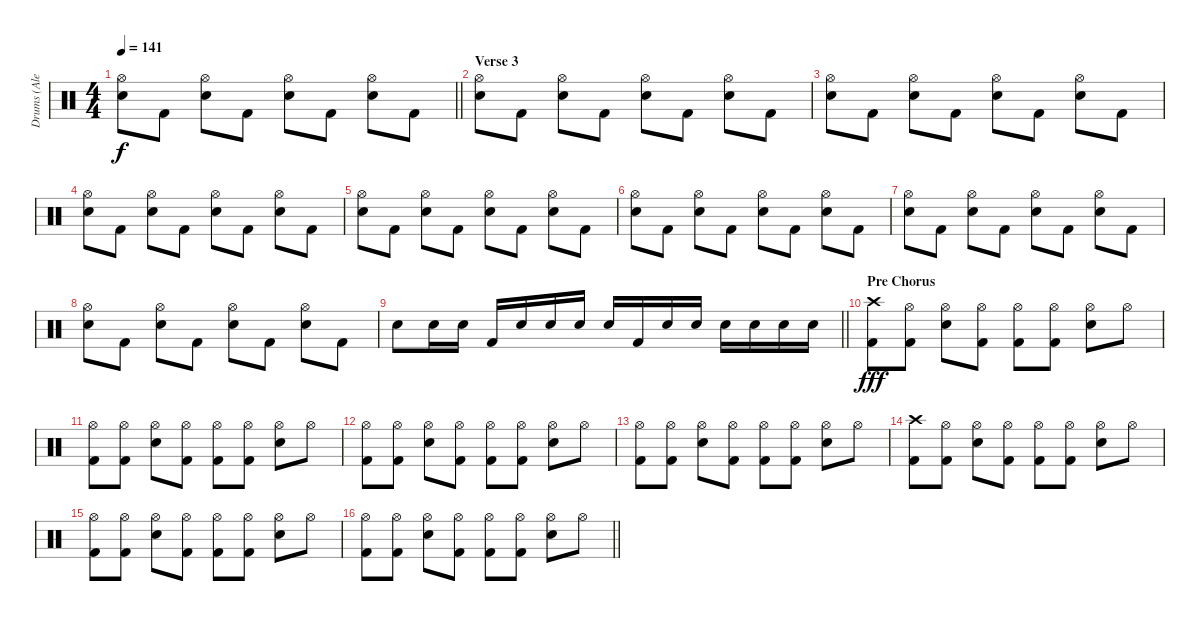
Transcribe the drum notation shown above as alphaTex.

\track ("Drums (Alex Van Halen)" "Drums (Ale") {instrument percussion}
\staff {score}
\articulation defaults
\ts (4 4)
\tempo 141
\clef neutral
\barLineRight lightlight
\ks c
("Hi-Hat (open)" "Electric Snare (hit)").8{dy f} "Kick (hit) 2".8 ("Hi-Hat (open)" "Electric Snare (hit)").8 "Kick (hit) 2".8 ("Hi-Hat (open)" "Electric Snare (hit)").8 "Kick (hit) 2".8 ("Hi-Hat (open)" "Electric Snare (hit)").8 "Kick (hit) 2".8 |
\section ("" "Verse 3")
("Hi-Hat (open)" "Electric Snare (hit)").8 "Kick (hit) 2".8 ("Hi-Hat (open)" "Electric Snare (hit)").8 "Kick (hit) 2".8 ("Hi-Hat (open)" "Electric Snare (hit)").8 "Kick (hit) 2".8 ("Hi-Hat (open)" "Electric Snare (hit)").8 "Kick (hit) 2".8 |
("Hi-Hat (open)" "Electric Snare (hit)").8 "Kick (hit) 2".8 ("Hi-Hat (open)" "Electric Snare (hit)").8 "Kick (hit) 2".8 ("Hi-Hat (open)" "Electric Snare (hit)").8 "Kick (hit) 2".8 ("Hi-Hat (open)" "Electric Snare (hit)").8 "Kick (hit) 2".8 |
("Hi-Hat (open)" "Electric Snare (hit)").8 "Kick (hit) 2".8 ("Hi-Hat (open)" "Electric Snare (hit)").8 "Kick (hit) 2".8 ("Hi-Hat (open)" "Electric Snare (hit)").8 "Kick (hit) 2".8 ("Hi-Hat (open)" "Electric Snare (hit)").8 "Kick (hit) 2".8 |
("Hi-Hat (open)" "Electric Snare (hit)").8 "Kick (hit) 2".8 ("Hi-Hat (open)" "Electric Snare (hit)").8 "Kick (hit) 2".8 ("Hi-Hat (open)" "Electric Snare (hit)").8 "Kick (hit) 2".8 ("Hi-Hat (open)" "Electric Snare (hit)").8 "Kick (hit) 2".8 |
("Hi-Hat (open)" "Electric Snare (hit)").8 "Kick (hit) 2".8 ("Hi-Hat (open)" "Electric Snare (hit)").8 "Kick (hit) 2".8 ("Hi-Hat (open)" "Electric Snare (hit)").8 "Kick (hit) 2".8 ("Hi-Hat (open)" "Electric Snare (hit)").8 "Kick (hit) 2".8 |
("Hi-Hat (open)" "Electric Snare (hit)").8 "Kick (hit) 2".8 ("Hi-Hat (open)" "Electric Snare (hit)").8 "Kick (hit) 2".8 ("Hi-Hat (open)" "Electric Snare (hit)").8 "Kick (hit) 2".8 ("Hi-Hat (open)" "Electric Snare (hit)").8 "Kick (hit) 2".8 |
("Hi-Hat (open)" "Electric Snare (hit)").8 "Kick (hit) 2".8 ("Hi-Hat (open)" "Electric Snare (hit)").8 "Kick (hit) 2".8 ("Hi-Hat (open)" "Electric Snare (hit)").8 "Kick (hit) 2".8 ("Hi-Hat (open)" "Electric Snare (hit)").8 "Kick (hit) 2".8 |
\barLineRight lightlight "Electric Snare (hit)".8 "Electric Snare (hit)".16 "Electric Snare (hit)".16 "Kick (hit) 2".16 "Electric Snare (hit)".16 "Electric Snare (hit)".16 "Electric Snare (hit)".16 "Electric Snare (hit)".16 "Kick (hit) 2".16 "Electric Snare (hit)".16 "Electric Snare (hit)".16 "Electric Snare (hit)".16 "Electric Snare (hit)".16 "Electric Snare (hit)".16 "Electric Snare (hit)".16
|
\section ("" "Pre Chorus")
("Crash high (hit)" "Kick (hit) 2").8{dy fff} ("Hi-Hat (open)" "Kick (hit) 2").8 ("Hi-Hat (open)" "Electric Snare (hit)").8 ("Hi-Hat (open)" "Kick (hit) 2").8 ("Hi-Hat (open)" "Kick (hit) 2").8 ("Hi-Hat (open)" "Kick (hit) 2").8 ("Hi-Hat (open)" "Electric Snare (hit)").8 "Hi-Hat (open)".8 |
("Hi-Hat (open)" "Kick (hit) 2").8 ("Hi-Hat (open)" "Kick (hit) 2").8 ("Hi-Hat (open)" "Electric Snare (hit)").8 ("Hi-Hat (open)" "Kick (hit) 2").8 ("Hi-Hat (open)" "Kick (hit) 2").8 ("Hi-Hat (open)" "Kick (hit) 2").8 ("Hi-Hat (open)" "Electric Snare (hit)").8 "Hi-Hat (open)".8 |
("Hi-Hat (open)" "Kick (hit) 2").8 ("Hi-Hat (open)" "Kick (hit) 2").8 ("Hi-Hat (open)" "Electric Snare (hit)").8 ("Hi-Hat (open)" "Kick (hit) 2").8 ("Hi-Hat (open)" "Kick (hit) 2").8 ("Hi-Hat (open)" "Kick (hit) 2").8 ("Hi-Hat (open)" "Electric Snare (hit)").8 "Hi-Hat (open)".8 |
("Hi-Hat (open)" "Kick (hit) 2").8 ("Hi-Hat (open)" "Kick (hit) 2").8 ("Hi-Hat (open)" "Electric Snare (hit)").8 ("Hi-Hat (open)" "Kick (hit) 2").8 ("Hi-Hat (open)" "Kick (hit) 2").8 ("Hi-Hat (open)" "Kick (hit) 2").8 ("Hi-Hat (open)" "Electric Snare (hit)").8 "Hi-Hat (open)".8 |
("Crash high (hit)" "Kick (hit) 2").8 ("Hi-Hat (open)" "Kick (hit) 2").8 ("Hi-Hat (open)" "Electric Snare (hit)").8 ("Hi-Hat (open)" "Kick (hit) 2").8 ("Hi-Hat (open)" "Kick (hit) 2").8 ("Hi-Hat (open)" "Kick (hit) 2").8 ("Hi-Hat (open)" "Electric Snare (hit)").8 "Hi-Hat (open)".8 |
("Hi-Hat (open)" "Kick (hit) 2").8 ("Hi-Hat (open)" "Kick (hit) 2").8 ("Hi-Hat (open)" "Electric Snare (hit)").8 ("Hi-Hat (open)" "Kick (hit) 2").8 ("Hi-Hat (open)" "Kick (hit) 2").8 ("Hi-Hat (open)" "Kick (hit) 2").8 ("Hi-Hat (open)" "Electric Snare (hit)").8 "Hi-Hat (open)".8 |
\barLineRight lightlight
("Hi-Hat (open)" "Kick (hit) 2").8 ("Hi-Hat (open)" "Kick (hit) 2").8 ("Hi-Hat (open)" "Electric Snare (hit)").8 ("Hi-Hat (open)" "Kick (hit) 2").8 ("Hi-Hat (open)" "Kick (hit) 2").8 ("Hi-Hat (open)" "Kick (hit) 2").8 ("Hi-Hat (open)" "Electric Snare (hit)").8 "Hi-Hat (open)".8
